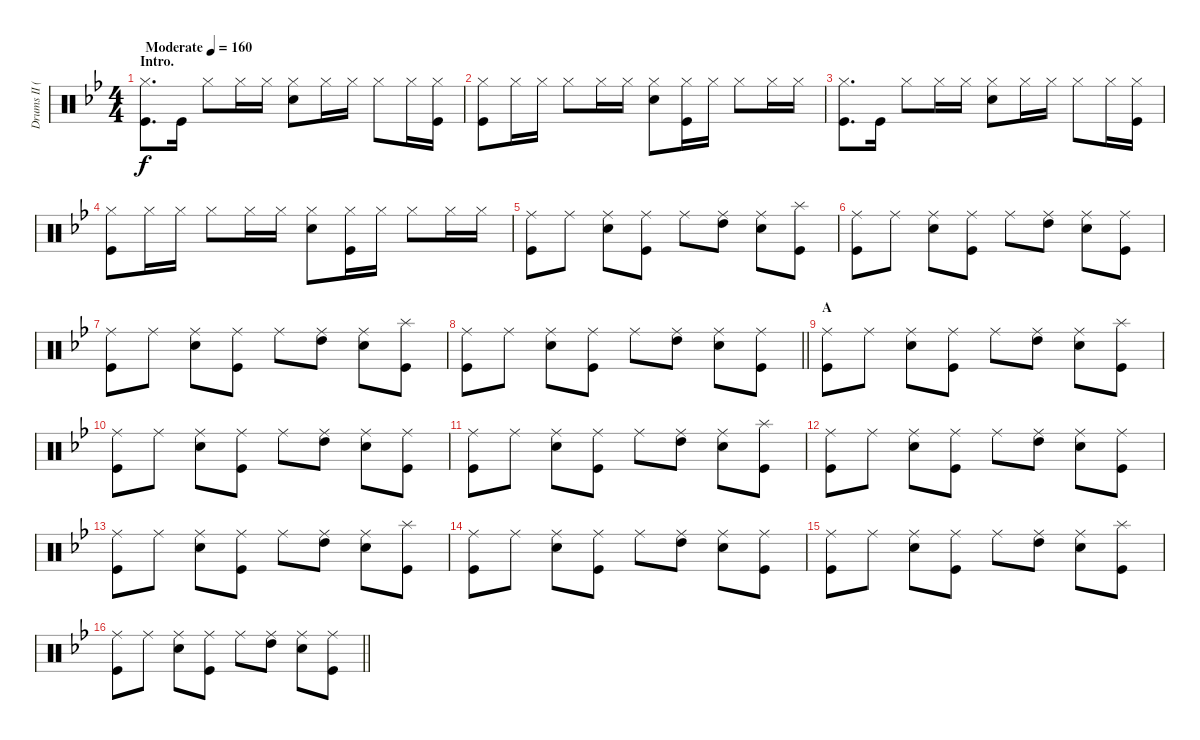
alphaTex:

\track ("Drums II (Tainaka Ritsu)" "Drums II (") {instrument percussion}
\staff {score}
\articulation defaults
\ts (4 4)
\section ("" "Intro.")
\tempo (160 "Moderate")
\clef neutral
\ks bb
("Hi-Hat (closed)" "Kick (hit)").8{d dy f} "Kick (hit)".16 "Hi-Hat (closed)".8 "Hi-Hat (closed)".16 "Hi-Hat (closed)".16 ("Hi-Hat (closed)" "Snare (hit) 2").8 "Hi-Hat (closed)".16 "Hi-Hat (closed)".16 "Hi-Hat (closed)".8 "Hi-Hat (closed)".16 ("Hi-Hat (closed)" "Kick (hit)").16 |
("Hi-Hat (closed)" "Kick (hit)").8 "Hi-Hat (closed)".16 "Hi-Hat (closed)".16 "Hi-Hat (closed)".8 "Hi-Hat (closed)".16 "Hi-Hat (closed)".16 ("Hi-Hat (closed)" "Snare (hit) 2").8 ("Hi-Hat (closed)" "Kick (hit)").16 "Hi-Hat (closed)".16 "Hi-Hat (closed)".8 "Hi-Hat (closed)".16 "Hi-Hat (closed)".16 |
("Hi-Hat (closed)" "Kick (hit)").8{d} "Kick (hit)".16 "Hi-Hat (closed)".8 "Hi-Hat (closed)".16 "Hi-Hat (closed)".16 ("Hi-Hat (closed)" "Snare (hit) 2").8 "Hi-Hat (closed)".16 "Hi-Hat (closed)".16 "Hi-Hat (closed)".8 "Hi-Hat (closed)".16 ("Hi-Hat (closed)" "Kick (hit)").16 |
("Hi-Hat (closed)" "Kick (hit)").8 "Hi-Hat (closed)".16 "Hi-Hat (closed)".16 "Hi-Hat (closed)".8 "Hi-Hat (closed)".16 "Hi-Hat (closed)".16 ("Hi-Hat (closed)" "Snare (hit) 2").8 ("Hi-Hat (closed)" "Kick (hit)").16 "Hi-Hat (closed)".16 "Hi-Hat (closed)".8 "Hi-Hat (closed)".16 "Hi-Hat (closed)".16 |
("Ride (middle)" "Kick (hit)").8 "Ride (middle)".8 ("Ride (middle)" "Snare (hit) 2").8 ("Ride (middle)" "Kick (hit)").8 "Ride (middle)".8 ("Ride (middle)" "High Tom (hit)").8 ("Ride (middle)" "Snare (hit) 2").8 ("Splash (hit)" "Kick (hit)").8 |
("Ride (middle)" "Kick (hit)").8 "Ride (middle)".8 ("Ride (middle)" "Snare (hit) 2").8 ("Ride (middle)" "Kick (hit)").8 "Ride (middle)".8 ("Ride (middle)" "High Tom (hit)").8 ("Ride (middle)" "Snare (hit) 2").8 ("Ride (middle)" "Kick (hit)").8 |
("Ride (middle)" "Kick (hit)").8 "Ride (middle)".8 ("Ride (middle)" "Snare (hit) 2").8 ("Ride (middle)" "Kick (hit)").8 "Ride (middle)".8 ("Ride (middle)" "High Tom (hit)").8 ("Ride (middle)" "Snare (hit) 2").8 ("Splash (hit)" "Kick (hit)").8 |
\barLineRight lightlight
("Ride (middle)" "Kick (hit)").8 "Ride (middle)".8 ("Ride (middle)" "Snare (hit) 2").8 ("Ride (middle)" "Kick (hit)").8 "Ride (middle)".8 ("Ride (middle)" "High Tom (hit)").8 ("Ride (middle)" "Snare (hit) 2").8 ("Ride (middle)" "Kick (hit)").8 |
\section ("" "A")
("Ride (middle)" "Kick (hit)").8 "Ride (middle)".8 ("Ride (middle)" "Snare (hit) 2").8 ("Ride (middle)" "Kick (hit)").8 "Ride (middle)".8 ("Ride (middle)" "High Tom (hit)").8 ("Ride (middle)" "Snare (hit) 2").8 ("Splash (hit)" "Kick (hit)").8 |
("Ride (middle)" "Kick (hit)").8 "Ride (middle)".8 ("Ride (middle)" "Snare (hit) 2").8 ("Ride (middle)" "Kick (hit)").8 "Ride (middle)".8 ("Ride (middle)" "High Tom (hit)").8 ("Ride (middle)" "Snare (hit) 2").8 ("Ride (middle)" "Kick (hit)").8 |
("Ride (middle)" "Kick (hit)").8 "Ride (middle)".8 ("Ride (middle)" "Snare (hit) 2").8 ("Ride (middle)" "Kick (hit)").8 "Ride (middle)".8 ("Ride (middle)" "High Tom (hit)").8 ("Ride (middle)" "Snare (hit) 2").8 ("Splash (hit)" "Kick (hit)").8 |
("Ride (middle)" "Kick (hit)").8 "Ride (middle)".8 ("Ride (middle)" "Snare (hit) 2").8 ("Ride (middle)" "Kick (hit)").8 "Ride (middle)".8 ("Ride (middle)" "High Tom (hit)").8 ("Ride (middle)" "Snare (hit) 2").8 ("Ride (middle)" "Kick (hit)").8 |
("Ride (middle)" "Kick (hit)").8 "Ride (middle)".8 ("Ride (middle)" "Snare (hit) 2").8 ("Ride (middle)" "Kick (hit)").8 "Ride (middle)".8 ("Ride (middle)" "High Tom (hit)").8 ("Ride (middle)" "Snare (hit) 2").8 ("Splash (hit)" "Kick (hit)").8 |
("Ride (middle)" "Kick (hit)").8 "Ride (middle)".8 ("Ride (middle)" "Snare (hit) 2").8 ("Ride (middle)" "Kick (hit)").8 "Ride (middle)".8 ("Ride (middle)" "High Tom (hit)").8 ("Ride (middle)" "Snare (hit) 2").8 ("Ride (middle)" "Kick (hit)").8 |
("Ride (middle)" "Kick (hit)").8 "Ride (middle)".8 ("Ride (middle)" "Snare (hit) 2").8 ("Ride (middle)" "Kick (hit)").8 "Ride (middle)".8 ("Ride (middle)" "High Tom (hit)").8 ("Ride (middle)" "Snare (hit) 2").8 ("Splash (hit)" "Kick (hit)").8 |
\barLineRight lightlight
("Ride (middle)" "Kick (hit)").8 "Ride (middle)".8 ("Ride (middle)" "Snare (hit) 2").8 ("Ride (middle)" "Kick (hit)").8 "Ride (middle)".8 ("Ride (middle)" "High Tom (hit)").8 ("Ride (middle)" "Snare (hit) 2").8 ("Ride (middle)" "Kick (hit)").8
